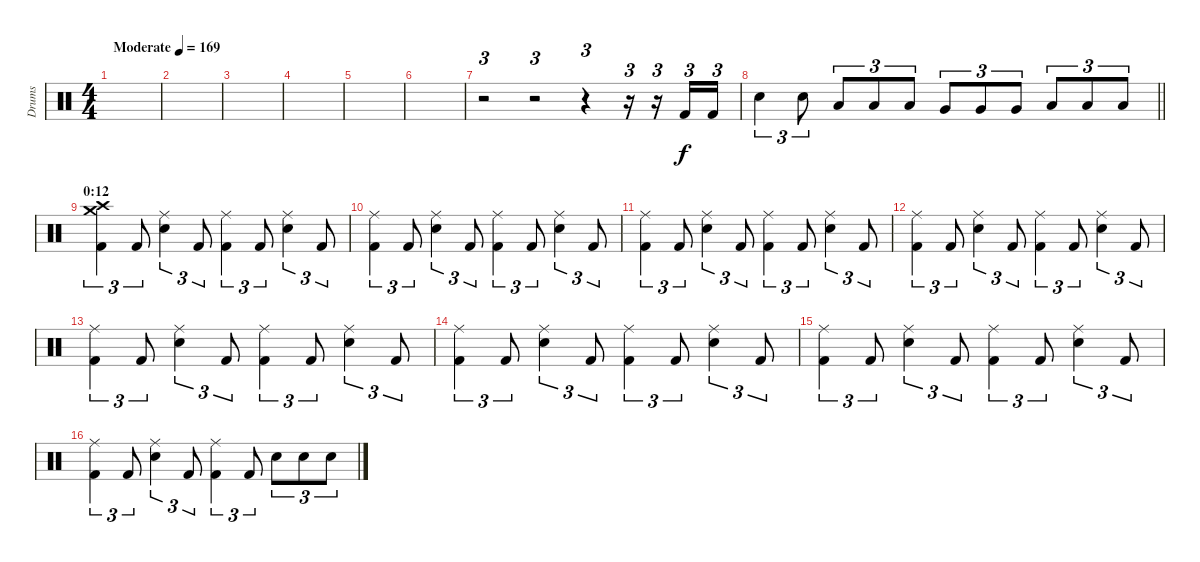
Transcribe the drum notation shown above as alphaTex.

\track ("Drums" "Drums") {instrument percussion}
\staff {score}
\articulation defaults
\ts (4 4)
\tempo (169 "Moderate")
\clef neutral
\ks c
|
|
|
|
|
|
r.2{tu (3 2)} r.2{tu (3 2)} r.4{tu (3 2)} r.16{tu (3 2)} r.16{tu (3 2)} "Kick (hit) 2".16{tu (3 2)} "Kick (hit) 2".16{tu (3 2)} |
\barLineRight lightlight "Snare (hit) 2".4{tu (3 2)} "Snare (hit) 2".8{tu (3 2)} "Low Tom (hit)".8{tu (3 2)} "Low Tom (hit)".8{tu (3 2)} "Low Tom (hit)".8{tu (3 2)} "Very Low Tom (hit)".8{tu (3 2)} "Very Low Tom (hit)".8{tu (3 2)} "Very Low Tom (hit)".8{tu (3 2)} "Low Floor Tom (hit)".8{tu (3 2)} "Low Floor Tom (hit)".8{tu (3 2)} "Low Floor Tom (hit)".8{tu (3 2)}
|
\section ("" "0:12")
("Crash high (hit)" "Crash medium (hit)" "Kick (hit) 2").4{tu (3 2)} "Kick (hit) 2".8{tu (3 2)} ("Ride (middle)" "Snare (hit) 2").4{tu (3 2)} "Kick (hit) 2".8{tu (3 2)} ("Ride (middle)" "Kick (hit) 2").4{tu (3 2)} "Kick (hit) 2".8{tu (3 2)} ("Ride (middle)" "Snare (hit) 2").4{tu (3 2)} "Kick (hit) 2".8{tu (3 2)} |
("Ride (middle)" "Kick (hit) 2").4{tu (3 2)} "Kick (hit) 2".8{tu (3 2)} ("Ride (middle)" "Snare (hit) 2").4{tu (3 2)} "Kick (hit) 2".8{tu (3 2)} ("Ride (middle)" "Kick (hit) 2").4{tu (3 2)} "Kick (hit) 2".8{tu (3 2)} ("Ride (middle)" "Snare (hit) 2").4{tu (3 2)} "Kick (hit) 2".8{tu (3 2)} |
("Ride (middle)" "Kick (hit) 2").4{tu (3 2)} "Kick (hit) 2".8{tu (3 2)} ("Ride (middle)" "Snare (hit) 2").4{tu (3 2)} "Kick (hit) 2".8{tu (3 2)} ("Ride (middle)" "Kick (hit) 2").4{tu (3 2)} "Kick (hit) 2".8{tu (3 2)} ("Ride (middle)" "Snare (hit) 2").4{tu (3 2)} "Kick (hit) 2".8{tu (3 2)} |
("Ride (middle)" "Kick (hit) 2").4{tu (3 2)} "Kick (hit) 2".8{tu (3 2)} ("Ride (middle)" "Snare (hit) 2").4{tu (3 2)} "Kick (hit) 2".8{tu (3 2)} ("Ride (middle)" "Kick (hit) 2").4{tu (3 2)} "Kick (hit) 2".8{tu (3 2)} ("Ride (middle)" "Snare (hit) 2").4{tu (3 2)} "Kick (hit) 2".8{tu (3 2)} |
("Ride (middle)" "Kick (hit) 2").4{tu (3 2)} "Kick (hit) 2".8{tu (3 2)} ("Ride (middle)" "Snare (hit) 2").4{tu (3 2)} "Kick (hit) 2".8{tu (3 2)} ("Ride (middle)" "Kick (hit) 2").4{tu (3 2)} "Kick (hit) 2".8{tu (3 2)} ("Ride (middle)" "Snare (hit) 2").4{tu (3 2)} "Kick (hit) 2".8{tu (3 2)} |
("Ride (middle)" "Kick (hit) 2").4{tu (3 2)} "Kick (hit) 2".8{tu (3 2)} ("Ride (middle)" "Snare (hit) 2").4{tu (3 2)} "Kick (hit) 2".8{tu (3 2)} ("Ride (middle)" "Kick (hit) 2").4{tu (3 2)} "Kick (hit) 2".8{tu (3 2)} ("Ride (middle)" "Snare (hit) 2").4{tu (3 2)} "Kick (hit) 2".8{tu (3 2)} |
("Ride (middle)" "Kick (hit) 2").4{tu (3 2)} "Kick (hit) 2".8{tu (3 2)} ("Ride (middle)" "Snare (hit) 2").4{tu (3 2)} "Kick (hit) 2".8{tu (3 2)} ("Ride (middle)" "Kick (hit) 2").4{tu (3 2)} "Kick (hit) 2".8{tu (3 2)} ("Ride (middle)" "Snare (hit) 2").4{tu (3 2)} "Kick (hit) 2".8{tu (3 2)} |
("Ride (middle)" "Kick (hit) 2").4{tu (3 2)} "Kick (hit) 2".8{tu (3 2)} ("Ride (middle)" "Snare (hit) 2").4{tu (3 2)} "Kick (hit) 2".8{tu (3 2)} ("Ride (middle)" "Kick (hit) 2").4{tu (3 2)} "Kick (hit) 2".8{tu (3 2)} "Snare (hit) 2".8{tu (3 2)} "Snare (hit) 2".8{tu (3 2)} "Snare (hit) 2".8{tu (3 2)}
